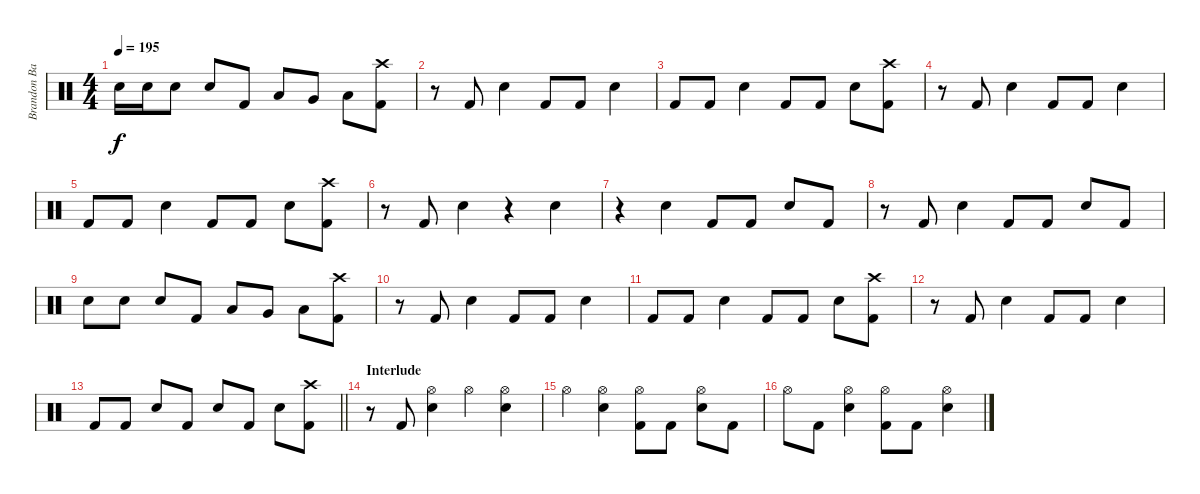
\track ("Brandon Barnes - Drums" "Brandon Ba") {instrument percussion}
\staff {score}
\articulation defaults
\ts (4 4)
\tempo 195
\clef neutral
\ks c "Snare (hit) 2".16{dy f} "Snare (hit) 2".16 "Snare (hit) 2".8 "Snare (hit) 2".8 "Kick (hit) 2".8 "Low Tom (hit)".8 "Very Low Tom (hit)".8 "Low Floor Tom (hit)".8
("Kick (hit) 2" "Crash high (hit)").8 |
r.8 "Kick (hit) 2".8 "Snare (hit) 2".4 "Kick (hit) 2".8 "Kick (hit) 2".8 "Snare (hit) 2".4 |
"Kick (hit) 2".8 "Kick (hit) 2".8 "Snare (hit) 2".4 "Kick (hit) 2".8 "Kick (hit) 2".8 "Snare (hit) 2".8 ("Crash high (hit)" "Kick (hit) 2").8 |
r.8 "Kick (hit) 2".8 "Snare (hit) 2".4 "Kick (hit) 2".8 "Kick (hit) 2".8 "Snare (hit) 2".4 |
"Kick (hit) 2".8 "Kick (hit) 2".8 "Snare (hit) 2".4 "Kick (hit) 2".8 "Kick (hit) 2".8 "Snare (hit) 2".8 ("Crash high (hit)" "Kick (hit) 2").8 |
r.8 "Kick (hit) 2".8 "Snare (hit) 2".4 r.4 "Snare (hit) 2".4 |
r.4 "Snare (hit) 2".4 "Kick (hit) 2".8 "Kick (hit) 2".8 "Snare (hit) 2".8 "Kick (hit) 2".8 |
r.8 "Kick (hit) 2".8 "Snare (hit) 2".4 "Kick (hit) 2".8 "Kick (hit) 2".8 "Snare (hit) 2".8 "Kick (hit) 2".8 |
"Snare (hit) 2".8 "Snare (hit) 2".8 "Snare (hit) 2".8 "Kick (hit) 2".8 "Low Tom (hit)".8 "Very Low Tom (hit)".8 "Low Floor Tom (hit)".8 ("Kick (hit) 2" "Crash high (hit)").8 |
r.8 "Kick (hit) 2".8 "Snare (hit) 2".4 "Kick (hit) 2".8 "Kick (hit) 2".8 "Snare (hit) 2".4 |
"Kick (hit) 2".8 "Kick (hit) 2".8 "Snare (hit) 2".4 "Kick (hit) 2".8 "Kick (hit) 2".8 "Snare (hit) 2".8 ("Crash high (hit)" "Kick (hit) 2").8 |
r.8 "Kick (hit) 2".8 "Snare (hit) 2".4 "Kick (hit) 2".8 "Kick (hit) 2".8 "Snare (hit) 2".4 |
\barLineRight lightlight "Kick (hit) 2".8 "Kick (hit) 2".8 "Snare (hit) 2".8 "Kick (hit) 2".8 "Snare (hit) 2".8 "Kick (hit) 2".8 "Snare (hit) 2".8
("Kick (hit) 2" "Crash high (hit)").8 |
\section ("" "Interlude")
r.8 "Kick (hit) 2".8 ("Snare (hit) 2" "Hi-Hat (open)").4 "Hi-Hat (open)".4 ("Snare (hit) 2" "Hi-Hat (open)").4 |
"Hi-Hat (open)".4 ("Snare (hit) 2" "Hi-Hat (open)").4 ("Kick (hit) 2" "Hi-Hat (open)").8 "Kick (hit) 2".8 ("Snare (hit) 2" "Hi-Hat (open)").8 "Kick (hit) 2".8 |
"Hi-Hat (open)".8 "Kick (hit) 2".8 ("Snare (hit) 2" "Hi-Hat (open)").4 ("Kick (hit) 2" "Hi-Hat (open)").8 "Kick (hit) 2".8 ("Snare (hit) 2" "Hi-Hat (open)").4
